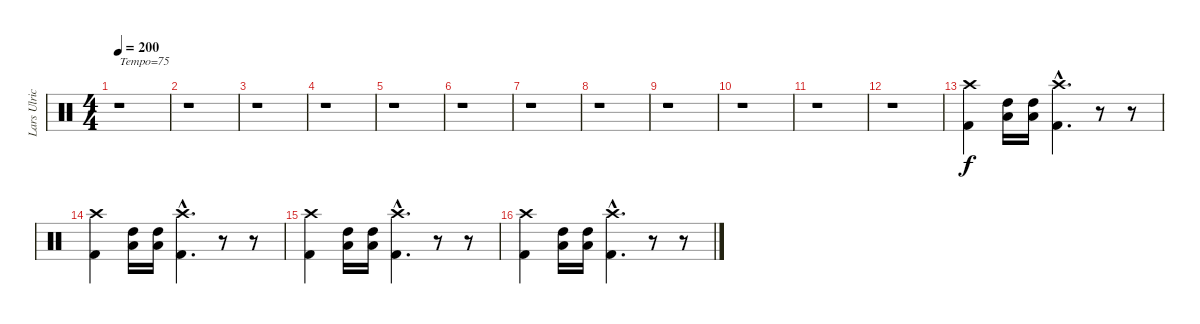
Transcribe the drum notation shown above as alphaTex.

\track ("Lars Ulrich" "Lars Ulric") {instrument percussion}
\staff {score}
\articulation defaults
\ts (4 4)
\tempo 200
\tempo 75
\tempo 200
\clef neutral
\ks c
r.1{txt "Tempo=75" dy f} |
r.1 |
r.1 |
r.1 |
r.1 |
r.1 |
r.1 |
r.1 |
r.1 |
r.1 |
r.1 |
r.1 |
("Crash high (hit)" "Kick (hit) 2").4 ("Low Tom (hit)" "High Tom (hit)").16 ("Low Tom (hit)" "High Tom (hit)").16 ("Crash high (hit)"{hac} "Kick (hit) 2"{hac}).4{d} r.8 r.8 |
("Crash high (hit)" "Kick (hit) 2").4 ("Low Tom (hit)" "High Tom (hit)").16 ("Low Tom (hit)" "High Tom (hit)").16 ("Crash high (hit)"{hac} "Kick (hit) 2"{hac}).4{d} r.8 r.8 |
("Crash high (hit)" "Kick (hit) 2").4 ("Low Tom (hit)" "High Tom (hit)").16 ("Low Tom (hit)" "High Tom (hit)").16 ("Crash high (hit)"{hac} "Kick (hit) 2"{hac}).4{d} r.8 r.8 |
("Crash high (hit)" "Kick (hit) 2").4 ("Low Tom (hit)" "High Tom (hit)").16 ("Low Tom (hit)" "High Tom (hit)").16 ("Crash high (hit)"{hac} "Kick (hit) 2"{hac}).4{d} r.8 r.8
